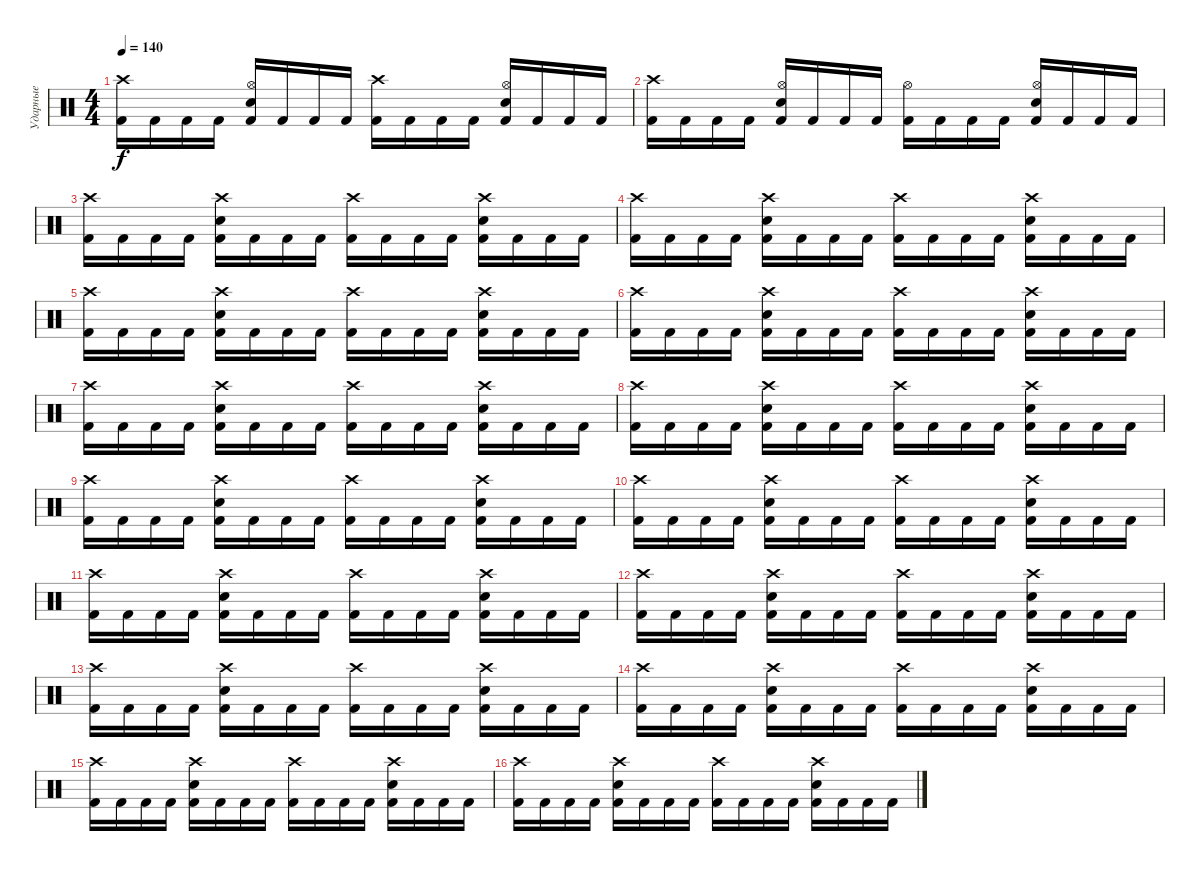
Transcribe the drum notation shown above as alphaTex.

\track ("Ударные" "Ударные") {mute instrument percussion}
\staff {score}
\articulation defaults
\ts (4 4)
\tempo 140
\clef neutral
\ks c
("Crash high (hit)" "Kick (hit) 2").16{dy f} "Kick (hit) 2".16 "Kick (hit) 2".16 "Kick (hit) 2".16 ("Hi-Hat (open)" "Electric Snare (hit)" "Kick (hit) 2").16 "Kick (hit) 2".16 "Kick (hit) 2".16 "Kick (hit) 2".16 ("Crash high (hit)" "Kick (hit) 2").16 "Kick (hit) 2".16 "Kick (hit) 2".16 "Kick (hit) 2".16 ("Hi-Hat (open)" "Electric Snare (hit)" "Kick (hit) 2").16 "Kick (hit) 2".16 "Kick (hit) 2".16 "Kick (hit) 2".16 |
("Crash high (hit)" "Kick (hit) 2").16 "Kick (hit) 2".16 "Kick (hit) 2".16 "Kick (hit) 2".16 ("Hi-Hat (open)" "Electric Snare (hit)" "Kick (hit) 2").16 "Kick (hit) 2".16 "Kick (hit) 2".16 "Kick (hit) 2".16 ("Hi-Hat (open)" "Kick (hit) 2").16 "Kick (hit) 2".16 "Kick (hit) 2".16 "Kick (hit) 2".16 ("Hi-Hat (open)" "Electric Snare (hit)" "Kick (hit) 2").16 "Kick (hit) 2".16 "Kick (hit) 2".16 "Kick (hit) 2".16 |
("Crash high (hit)" "Kick (hit) 2").16 "Kick (hit) 2".16 "Kick (hit) 2".16 "Kick (hit) 2".16 ("Crash high (hit)" "Electric Snare (hit)" "Kick (hit) 2").16 "Kick (hit) 2".16 "Kick (hit) 2".16 "Kick (hit) 2".16 ("Crash high (hit)" "Kick (hit) 2").16 "Kick (hit) 2".16 "Kick (hit) 2".16 "Kick (hit) 2".16 ("Crash high (hit)" "Electric Snare (hit)" "Kick (hit) 2").16 "Kick (hit) 2".16 "Kick (hit) 2".16 "Kick (hit) 2".16 |
("Crash high (hit)" "Kick (hit) 2").16 "Kick (hit) 2".16 "Kick (hit) 2".16 "Kick (hit) 2".16 ("Crash high (hit)" "Electric Snare (hit)" "Kick (hit) 2").16 "Kick (hit) 2".16 "Kick (hit) 2".16 "Kick (hit) 2".16 ("Crash high (hit)" "Kick (hit) 2").16 "Kick (hit) 2".16 "Kick (hit) 2".16 "Kick (hit) 2".16 ("Crash high (hit)" "Electric Snare (hit)" "Kick (hit) 2").16 "Kick (hit) 2".16 "Kick (hit) 2".16 "Kick (hit) 2".16 |
("Crash high (hit)" "Kick (hit) 2").16 "Kick (hit) 2".16 "Kick (hit) 2".16 "Kick (hit) 2".16 ("Crash high (hit)" "Electric Snare (hit)" "Kick (hit) 2").16 "Kick (hit) 2".16 "Kick (hit) 2".16 "Kick (hit) 2".16 ("Crash high (hit)" "Kick (hit) 2").16 "Kick (hit) 2".16 "Kick (hit) 2".16 "Kick (hit) 2".16 ("Crash high (hit)" "Electric Snare (hit)" "Kick (hit) 2").16 "Kick (hit) 2".16 "Kick (hit) 2".16 "Kick (hit) 2".16 |
("Crash high (hit)" "Kick (hit) 2").16 "Kick (hit) 2".16 "Kick (hit) 2".16 "Kick (hit) 2".16 ("Crash high (hit)" "Electric Snare (hit)" "Kick (hit) 2").16 "Kick (hit) 2".16 "Kick (hit) 2".16 "Kick (hit) 2".16 ("Crash high (hit)" "Kick (hit) 2").16 "Kick (hit) 2".16 "Kick (hit) 2".16 "Kick (hit) 2".16 ("Crash high (hit)" "Electric Snare (hit)" "Kick (hit) 2").16 "Kick (hit) 2".16 "Kick (hit) 2".16 "Kick (hit) 2".16 |
("Crash high (hit)" "Kick (hit) 2").16 "Kick (hit) 2".16 "Kick (hit) 2".16 "Kick (hit) 2".16 ("Crash high (hit)" "Electric Snare (hit)" "Kick (hit) 2").16 "Kick (hit) 2".16 "Kick (hit) 2".16 "Kick (hit) 2".16 ("Crash high (hit)" "Kick (hit) 2").16 "Kick (hit) 2".16 "Kick (hit) 2".16 "Kick (hit) 2".16 ("Crash high (hit)" "Electric Snare (hit)" "Kick (hit) 2").16 "Kick (hit) 2".16 "Kick (hit) 2".16 "Kick (hit) 2".16 |
("Crash high (hit)" "Kick (hit) 2").16 "Kick (hit) 2".16 "Kick (hit) 2".16 "Kick (hit) 2".16 ("Crash high (hit)" "Electric Snare (hit)" "Kick (hit) 2").16 "Kick (hit) 2".16 "Kick (hit) 2".16 "Kick (hit) 2".16 ("Crash high (hit)" "Kick (hit) 2").16 "Kick (hit) 2".16 "Kick (hit) 2".16 "Kick (hit) 2".16 ("Crash high (hit)" "Electric Snare (hit)" "Kick (hit) 2").16 "Kick (hit) 2".16 "Kick (hit) 2".16 "Kick (hit) 2".16 |
("Crash high (hit)" "Kick (hit) 2").16 "Kick (hit) 2".16 "Kick (hit) 2".16 "Kick (hit) 2".16 ("Crash high (hit)" "Electric Snare (hit)" "Kick (hit) 2").16 "Kick (hit) 2".16 "Kick (hit) 2".16 "Kick (hit) 2".16 ("Crash high (hit)" "Kick (hit) 2").16 "Kick (hit) 2".16 "Kick (hit) 2".16 "Kick (hit) 2".16 ("Crash high (hit)" "Electric Snare (hit)" "Kick (hit) 2").16 "Kick (hit) 2".16 "Kick (hit) 2".16 "Kick (hit) 2".16 |
("Crash high (hit)" "Kick (hit) 2").16 "Kick (hit) 2".16 "Kick (hit) 2".16 "Kick (hit) 2".16 ("Crash high (hit)" "Electric Snare (hit)" "Kick (hit) 2").16 "Kick (hit) 2".16 "Kick (hit) 2".16 "Kick (hit) 2".16 ("Crash high (hit)" "Kick (hit) 2").16 "Kick (hit) 2".16 "Kick (hit) 2".16 "Kick (hit) 2".16 ("Crash high (hit)" "Electric Snare (hit)" "Kick (hit) 2").16 "Kick (hit) 2".16 "Kick (hit) 2".16 "Kick (hit) 2".16 |
("Crash high (hit)" "Kick (hit) 2").16 "Kick (hit) 2".16 "Kick (hit) 2".16 "Kick (hit) 2".16 ("Crash high (hit)" "Electric Snare (hit)" "Kick (hit) 2").16 "Kick (hit) 2".16 "Kick (hit) 2".16 "Kick (hit) 2".16 ("Crash high (hit)" "Kick (hit) 2").16 "Kick (hit) 2".16 "Kick (hit) 2".16 "Kick (hit) 2".16 ("Crash high (hit)" "Electric Snare (hit)" "Kick (hit) 2").16 "Kick (hit) 2".16 "Kick (hit) 2".16 "Kick (hit) 2".16 |
("Crash high (hit)" "Kick (hit) 2").16 "Kick (hit) 2".16 "Kick (hit) 2".16 "Kick (hit) 2".16 ("Crash high (hit)" "Electric Snare (hit)" "Kick (hit) 2").16 "Kick (hit) 2".16 "Kick (hit) 2".16 "Kick (hit) 2".16 ("Crash high (hit)" "Kick (hit) 2").16 "Kick (hit) 2".16 "Kick (hit) 2".16 "Kick (hit) 2".16 ("Crash high (hit)" "Electric Snare (hit)" "Kick (hit) 2").16 "Kick (hit) 2".16 "Kick (hit) 2".16 "Kick (hit) 2".16 |
("Crash high (hit)" "Kick (hit) 2").16 "Kick (hit) 2".16 "Kick (hit) 2".16 "Kick (hit) 2".16 ("Crash high (hit)" "Electric Snare (hit)" "Kick (hit) 2").16 "Kick (hit) 2".16 "Kick (hit) 2".16 "Kick (hit) 2".16 ("Crash high (hit)" "Kick (hit) 2").16 "Kick (hit) 2".16 "Kick (hit) 2".16 "Kick (hit) 2".16 ("Crash high (hit)" "Electric Snare (hit)" "Kick (hit) 2").16 "Kick (hit) 2".16 "Kick (hit) 2".16 "Kick (hit) 2".16 |
("Crash high (hit)" "Kick (hit) 2").16 "Kick (hit) 2".16 "Kick (hit) 2".16 "Kick (hit) 2".16 ("Crash high (hit)" "Electric Snare (hit)" "Kick (hit) 2").16 "Kick (hit) 2".16 "Kick (hit) 2".16 "Kick (hit) 2".16 ("Crash high (hit)" "Kick (hit) 2").16 "Kick (hit) 2".16 "Kick (hit) 2".16 "Kick (hit) 2".16 ("Crash high (hit)" "Electric Snare (hit)" "Kick (hit) 2").16 "Kick (hit) 2".16 "Kick (hit) 2".16 "Kick (hit) 2".16 |
("Crash high (hit)" "Kick (hit) 2").16 "Kick (hit) 2".16 "Kick (hit) 2".16 "Kick (hit) 2".16 ("Crash high (hit)" "Electric Snare (hit)" "Kick (hit) 2").16 "Kick (hit) 2".16 "Kick (hit) 2".16 "Kick (hit) 2".16 ("Crash high (hit)" "Kick (hit) 2").16 "Kick (hit) 2".16 "Kick (hit) 2".16 "Kick (hit) 2".16 ("Crash high (hit)" "Electric Snare (hit)" "Kick (hit) 2").16 "Kick (hit) 2".16 "Kick (hit) 2".16 "Kick (hit) 2".16 |
("Crash high (hit)" "Kick (hit) 2").16 "Kick (hit) 2".16 "Kick (hit) 2".16 "Kick (hit) 2".16 ("Crash high (hit)" "Electric Snare (hit)" "Kick (hit) 2").16 "Kick (hit) 2".16 "Kick (hit) 2".16 "Kick (hit) 2".16 ("Crash high (hit)" "Kick (hit) 2").16 "Kick (hit) 2".16 "Kick (hit) 2".16 "Kick (hit) 2".16 ("Crash high (hit)" "Electric Snare (hit)" "Kick (hit) 2").16 "Kick (hit) 2".16 "Kick (hit) 2".16 "Kick (hit) 2".16
